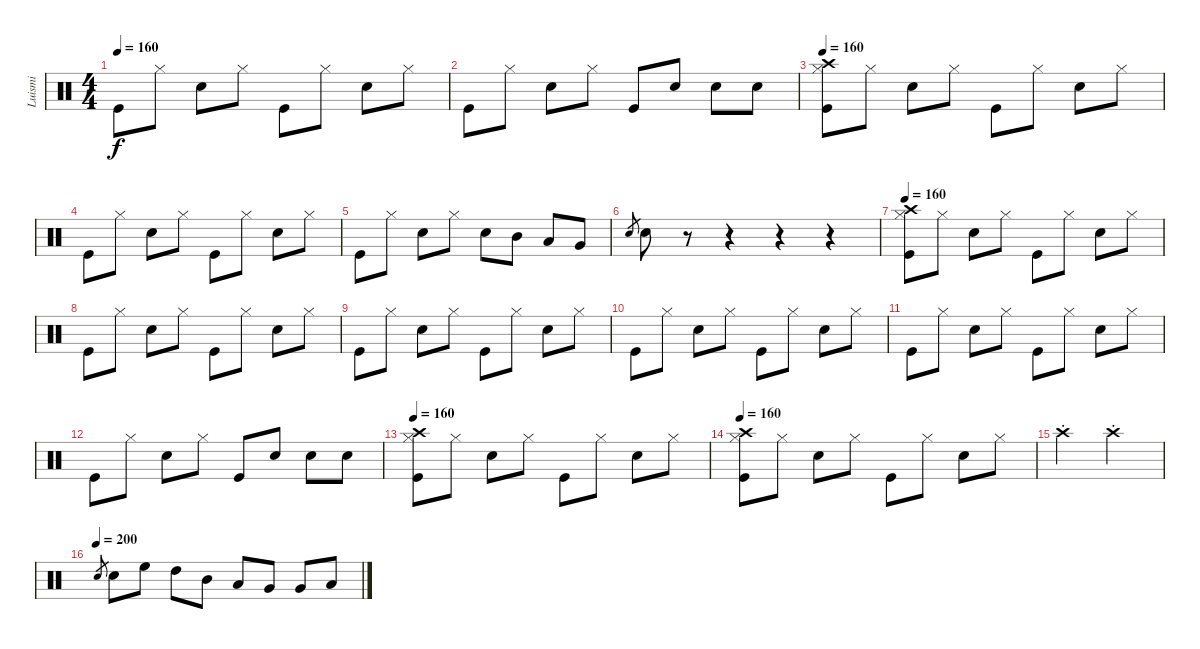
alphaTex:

\track ("Luismi" "Luismi") {instrument percussion}
\staff {score}
\articulation defaults
\ts (4 4)
\tempo 160
\clef neutral
\ks c "Kick (hit)".8{dy f} "Hi-Hat (closed)".8 "Snare (hit) 2".8 "Hi-Hat (closed)".8 "Kick (hit)".8 "Hi-Hat (closed)".8 "Snare (hit) 2".8 "Hi-Hat (closed)".8
|
"Kick (hit)".8 "Hi-Hat (closed)".8 "Snare (hit) 2".8 "Hi-Hat (closed)".8 "Kick (hit)".8 "Snare (hit) 2".8 "Snare (hit) 2".8 "Snare (hit) 2".8 |
\tempo 160
("Kick (hit)" "Crash high (hit)" "Hi-Hat (closed)").8 "Hi-Hat (closed)".8 "Snare (hit) 2".8 "Hi-Hat (closed)".8 "Kick (hit)".8 "Hi-Hat (closed)".8 "Snare (hit) 2".8 "Hi-Hat (closed)".8 |
"Kick (hit)".8 "Hi-Hat (closed)".8 "Snare (hit) 2".8 "Hi-Hat (closed)".8 "Kick (hit)".8 "Hi-Hat (closed)".8 "Snare (hit) 2".8 "Hi-Hat (closed)".8 |
"Kick (hit)".8 "Hi-Hat (closed)".8 "Snare (hit) 2".8 "Hi-Hat (closed)".8 "Snare (hit) 2".8 "Mid Tom (hit)".8 "Low Tom (hit)".8 "Very Low Tom (hit)".8 |
"Snare (hit) 2".8{gr} "Snare (hit) 2".8 r.8 r.4 r.4 r.4 |
\tempo 160
("Kick (hit)" "Crash high (hit)" "Hi-Hat (closed)").8 "Hi-Hat (closed)".8 "Snare (hit) 2".8 "Hi-Hat (closed)".8 "Kick (hit)".8 "Hi-Hat (closed)".8 "Snare (hit) 2".8 "Hi-Hat (closed)".8 |
"Kick (hit)".8 "Hi-Hat (closed)".8 "Snare (hit) 2".8 "Hi-Hat (closed)".8 "Kick (hit)".8 "Hi-Hat (closed)".8 "Snare (hit) 2".8 "Hi-Hat (closed)".8 |
"Kick (hit)".8 "Hi-Hat (closed)".8 "Snare (hit) 2".8 "Hi-Hat (closed)".8 "Kick (hit)".8 "Hi-Hat (closed)".8 "Snare (hit) 2".8 "Hi-Hat (closed)".8 |
"Kick (hit)".8 "Hi-Hat (closed)".8 "Snare (hit) 2".8 "Hi-Hat (closed)".8 "Kick (hit)".8 "Hi-Hat (closed)".8 "Snare (hit) 2".8 "Hi-Hat (closed)".8 |
"Kick (hit)".8 "Hi-Hat (closed)".8 "Snare (hit) 2".8 "Hi-Hat (closed)".8 "Kick (hit)".8 "Hi-Hat (closed)".8 "Snare (hit) 2".8 "Hi-Hat (closed)".8 |
"Kick (hit)".8 "Hi-Hat (closed)".8 "Snare (hit) 2".8 "Hi-Hat (closed)".8 "Kick (hit)".8 "Snare (hit) 2".8 "Snare (hit) 2".8 "Snare (hit) 2".8 |
\tempo 160
("Kick (hit)" "Crash high (hit)" "Hi-Hat (closed)").8 "Hi-Hat (closed)".8 "Snare (hit) 2".8 "Hi-Hat (closed)".8 "Kick (hit)".8 "Hi-Hat (closed)".8 "Snare (hit) 2".8 "Hi-Hat (closed)".8 |
\tempo 160
("Kick (hit)" "Crash high (hit)" "Hi-Hat (closed)").8 "Hi-Hat (closed)".8 "Snare (hit) 2".8 "Hi-Hat (closed)".8 "Kick (hit)".8 "Hi-Hat (closed)".8 "Snare (hit) 2".8 "Hi-Hat (closed)".8 |
"Crash high (hit)"{st}.2 "Crash high (hit)"{st}.2 |
\tempo (200)
"Snare (hit) 2".8{gr} "Snare (hit) 2".8 "High Floor Tom (hit)".8 "High Tom (hit)".8 "Mid Tom (hit)".8 "Low Tom (hit)".8 "Very Low Tom (hit)".8 "Very Low Tom (hit)".8 "Low Floor Tom (hit)".8
